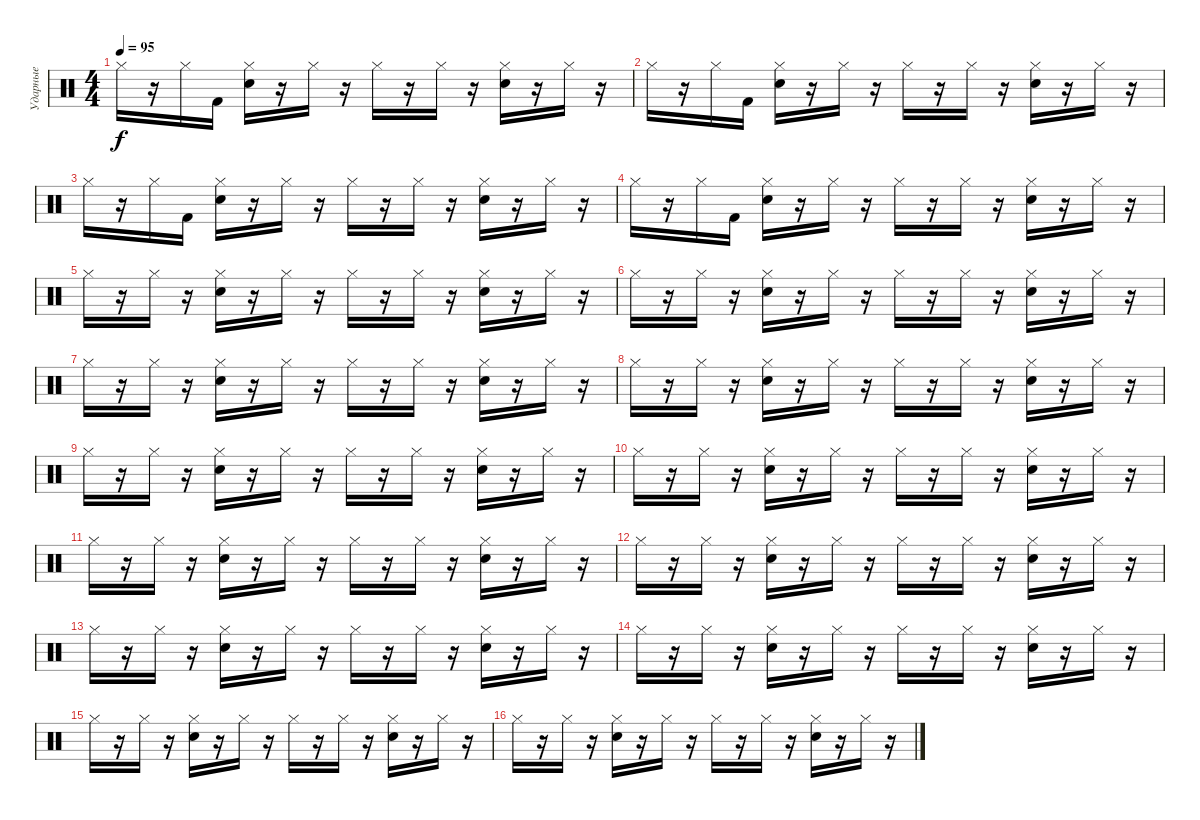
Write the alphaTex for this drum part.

\track ("Ударные" "Ударные") {instrument percussion}
\staff {score}
\articulation defaults
\ts (4 4)
\tempo 95
\clef neutral
\ks c "Hi-Hat (closed)".16{dy f}
r.16 "Hi-Hat (closed)".16 "Kick (hit) 2".16 ("Hi-Hat (closed)" "Electric Snare (hit)").16 r.16 "Hi-Hat (closed)".16 r.16 "Hi-Hat (closed)".16 r.16 "Hi-Hat (closed)".16 r.16 ("Hi-Hat (closed)" "Electric Snare (hit)").16 r.16 "Hi-Hat (closed)".16 r.16 |
"Hi-Hat (closed)".16 r.16 "Hi-Hat (closed)".16 "Kick (hit) 2".16 ("Hi-Hat (closed)" "Electric Snare (hit)").16 r.16 "Hi-Hat (closed)".16 r.16 "Hi-Hat (closed)".16 r.16 "Hi-Hat (closed)".16 r.16 ("Hi-Hat (closed)" "Electric Snare (hit)").16 r.16 "Hi-Hat (closed)".16 r.16 |
"Hi-Hat (closed)".16 r.16 "Hi-Hat (closed)".16 "Kick (hit) 2".16 ("Hi-Hat (closed)" "Electric Snare (hit)").16 r.16 "Hi-Hat (closed)".16 r.16 "Hi-Hat (closed)".16 r.16 "Hi-Hat (closed)".16 r.16 ("Hi-Hat (closed)" "Electric Snare (hit)").16 r.16 "Hi-Hat (closed)".16 r.16 |
"Hi-Hat (closed)".16 r.16 "Hi-Hat (closed)".16 "Kick (hit) 2".16 ("Hi-Hat (closed)" "Electric Snare (hit)").16 r.16 "Hi-Hat (closed)".16 r.16 "Hi-Hat (closed)".16 r.16 "Hi-Hat (closed)".16 r.16 ("Hi-Hat (closed)" "Electric Snare (hit)").16 r.16 "Hi-Hat (closed)".16 r.16 |
"Hi-Hat (closed)".16 r.16 "Hi-Hat (closed)".16 r.16 ("Hi-Hat (closed)" "Electric Snare (hit)").16 r.16 "Hi-Hat (closed)".16 r.16 "Hi-Hat (closed)".16 r.16 "Hi-Hat (closed)".16 r.16 ("Hi-Hat (closed)" "Electric Snare (hit)").16 r.16 "Hi-Hat (closed)".16 r.16 |
"Hi-Hat (closed)".16 r.16 "Hi-Hat (closed)".16 r.16 ("Hi-Hat (closed)" "Electric Snare (hit)").16 r.16 "Hi-Hat (closed)".16 r.16 "Hi-Hat (closed)".16 r.16 "Hi-Hat (closed)".16 r.16 ("Hi-Hat (closed)" "Electric Snare (hit)").16 r.16 "Hi-Hat (closed)".16 r.16 |
"Hi-Hat (closed)".16 r.16 "Hi-Hat (closed)".16 r.16 ("Hi-Hat (closed)" "Electric Snare (hit)").16 r.16 "Hi-Hat (closed)".16 r.16 "Hi-Hat (closed)".16 r.16 "Hi-Hat (closed)".16 r.16 ("Hi-Hat (closed)" "Electric Snare (hit)").16 r.16 "Hi-Hat (closed)".16 r.16 |
"Hi-Hat (closed)".16 r.16 "Hi-Hat (closed)".16 r.16 ("Hi-Hat (closed)" "Electric Snare (hit)").16 r.16 "Hi-Hat (closed)".16 r.16 "Hi-Hat (closed)".16 r.16 "Hi-Hat (closed)".16 r.16 ("Hi-Hat (closed)" "Electric Snare (hit)").16 r.16 "Hi-Hat (closed)".16 r.16 |
"Hi-Hat (closed)".16 r.16 "Hi-Hat (closed)".16 r.16 ("Hi-Hat (closed)" "Electric Snare (hit)").16 r.16 "Hi-Hat (closed)".16 r.16 "Hi-Hat (closed)".16 r.16 "Hi-Hat (closed)".16 r.16 ("Hi-Hat (closed)" "Electric Snare (hit)").16 r.16 "Hi-Hat (closed)".16 r.16 |
"Hi-Hat (closed)".16 r.16 "Hi-Hat (closed)".16 r.16 ("Hi-Hat (closed)" "Electric Snare (hit)").16 r.16 "Hi-Hat (closed)".16 r.16 "Hi-Hat (closed)".16 r.16 "Hi-Hat (closed)".16 r.16 ("Hi-Hat (closed)" "Electric Snare (hit)").16 r.16 "Hi-Hat (closed)".16 r.16 |
"Hi-Hat (closed)".16 r.16 "Hi-Hat (closed)".16 r.16 ("Hi-Hat (closed)" "Electric Snare (hit)").16 r.16 "Hi-Hat (closed)".16 r.16 "Hi-Hat (closed)".16 r.16 "Hi-Hat (closed)".16 r.16 ("Hi-Hat (closed)" "Electric Snare (hit)").16 r.16 "Hi-Hat (closed)".16 r.16 |
"Hi-Hat (closed)".16 r.16 "Hi-Hat (closed)".16 r.16 ("Hi-Hat (closed)" "Electric Snare (hit)").16 r.16 "Hi-Hat (closed)".16 r.16 "Hi-Hat (closed)".16 r.16 "Hi-Hat (closed)".16 r.16 ("Hi-Hat (closed)" "Electric Snare (hit)").16 r.16 "Hi-Hat (closed)".16 r.16 |
"Hi-Hat (closed)".16 r.16 "Hi-Hat (closed)".16 r.16 ("Hi-Hat (closed)" "Electric Snare (hit)").16 r.16 "Hi-Hat (closed)".16 r.16 "Hi-Hat (closed)".16 r.16 "Hi-Hat (closed)".16 r.16 ("Hi-Hat (closed)" "Electric Snare (hit)").16 r.16 "Hi-Hat (closed)".16 r.16 |
"Hi-Hat (closed)".16 r.16 "Hi-Hat (closed)".16 r.16 ("Hi-Hat (closed)" "Electric Snare (hit)").16 r.16 "Hi-Hat (closed)".16 r.16 "Hi-Hat (closed)".16 r.16 "Hi-Hat (closed)".16 r.16 ("Hi-Hat (closed)" "Electric Snare (hit)").16 r.16 "Hi-Hat (closed)".16 r.16 |
"Hi-Hat (closed)".16 r.16 "Hi-Hat (closed)".16 r.16 ("Hi-Hat (closed)" "Electric Snare (hit)").16 r.16 "Hi-Hat (closed)".16 r.16 "Hi-Hat (closed)".16 r.16 "Hi-Hat (closed)".16 r.16 ("Hi-Hat (closed)" "Electric Snare (hit)").16 r.16 "Hi-Hat (closed)".16 r.16 |
"Hi-Hat (closed)".16 r.16 "Hi-Hat (closed)".16 r.16 ("Hi-Hat (closed)" "Electric Snare (hit)").16 r.16 "Hi-Hat (closed)".16 r.16 "Hi-Hat (closed)".16 r.16 "Hi-Hat (closed)".16 r.16 ("Hi-Hat (closed)" "Electric Snare (hit)").16 r.16 "Hi-Hat (closed)".16 r.16
